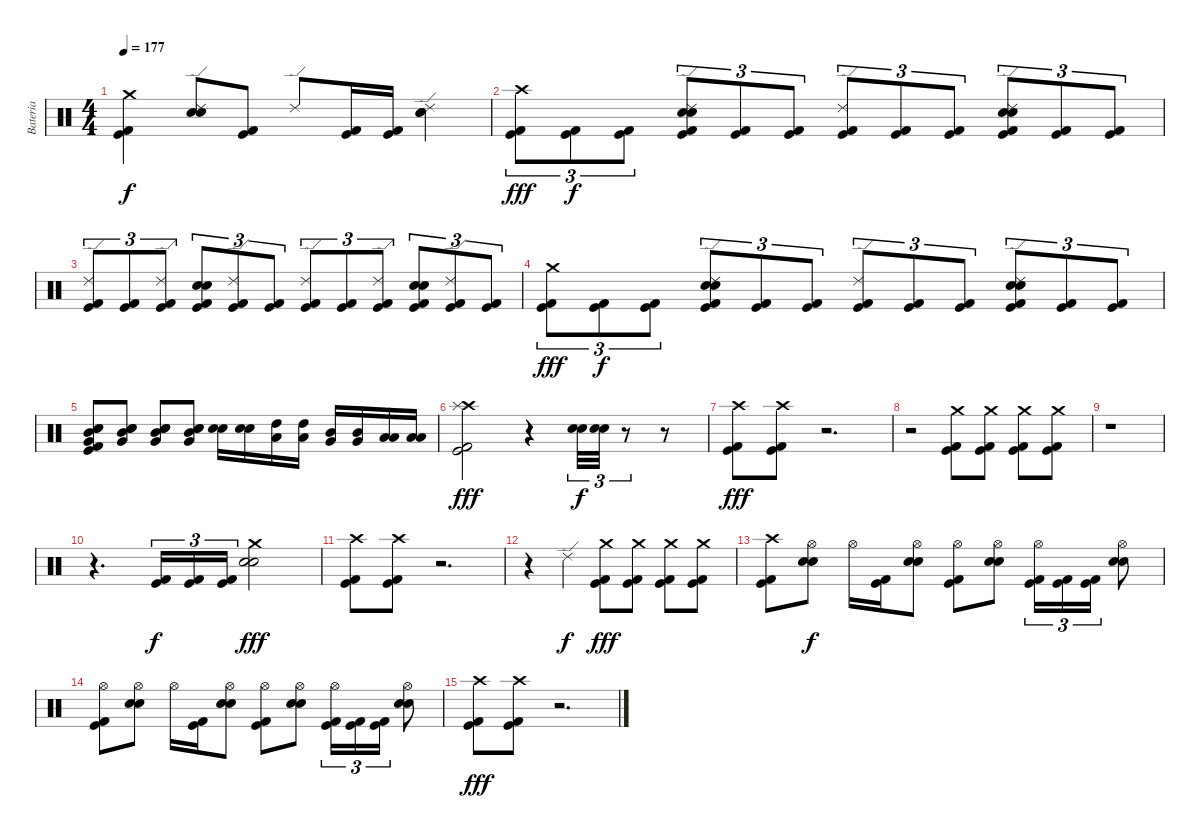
\track ("Bateria" "Bateria") {instrument percussion}
\staff {score}
\articulation defaults
\ts (4 4)
\tempo 177
\clef neutral
\ks c
("Crash medium (hit)" "Kick (hit) 2" "Kick (hit)").4{dy f} ("Ride (edge) 2" "Electric Snare (hit)" "Snare (hit) 2").8 ("Kick (hit) 2" "Kick (hit)").8 "Ride (edge) 2".8 ("Kick (hit) 2" "Kick (hit)").16 ("Kick (hit) 2" "Kick (hit)").16 ("Ride (edge) 2" "Electric Snare (hit)" "Snare (hit) 2").4 |
("Crash high (hit)" "Kick (hit) 2" "Kick (hit)").8{tu (3 2) dy fff} ("Kick (hit) 2" "Kick (hit)").8{tu (3 2) dy f} ("Kick (hit) 2" "Kick (hit)").8{tu (3 2)} ("Ride (edge) 2" "Electric Snare (hit)" "Snare (hit) 2" "Kick (hit) 2" "Kick (hit)").8{tu (3 2)} ("Kick (hit) 2" "Kick (hit)").8{tu (3 2)} ("Kick (hit) 2" "Kick (hit)").8{tu (3 2)} ("Ride (edge) 2" "Kick (hit) 2" "Kick (hit)").8{tu (3 2)} ("Kick (hit) 2" "Kick (hit)").8{tu (3 2)} ("Kick (hit) 2" "Kick (hit)").8{tu (3 2)} ("Ride (edge) 2" "Electric Snare (hit)" "Snare (hit) 2" "Kick (hit) 2" "Kick (hit)").8{tu (3 2)} ("Kick (hit) 2" "Kick (hit)").8{tu (3 2)} ("Kick (hit) 2" "Kick (hit)").8{tu (3 2)} |
("Ride (edge) 2" "Kick (hit) 2" "Kick (hit)").8{tu (3 2)} ("Kick (hit) 2" "Kick (hit)").8{tu (3 2)} ("Ride (edge) 2" "Kick (hit) 2" "Kick (hit)").8{tu (3 2)} ("Electric Snare (hit)" "Snare (hit) 2" "Kick (hit) 2" "Kick (hit)").8{tu (3 2)} ("Ride (edge) 2" "Kick (hit) 2" "Kick (hit)").8{tu (3 2)} ("Kick (hit) 2" "Kick (hit)").8{tu (3 2)} ("Ride (edge) 2" "Kick (hit) 2" "Kick (hit)").8{tu (3 2)} ("Kick (hit) 2" "Kick (hit)").8{tu (3 2)} ("Ride (edge) 2" "Kick (hit) 2" "Kick (hit)").8{tu (3 2)} ("Electric Snare (hit)" "Snare (hit) 2" "Kick (hit) 2" "Kick (hit)").8{tu (3 2)} ("Ride (edge) 2" "Kick (hit) 2" "Kick (hit)").8{tu (3 2)} ("Kick (hit) 2" "Kick (hit)").8{tu (3 2)} |
("Crash medium (hit)" "Kick (hit) 2" "Kick (hit)").8{tu (3 2) dy fff} ("Kick (hit) 2" "Kick (hit)").8{tu (3 2) dy f} ("Kick (hit) 2" "Kick (hit)").8{tu (3 2)} ("Ride (edge) 2" "Electric Snare (hit)" "Snare (hit) 2" "Kick (hit) 2" "Kick (hit)").8{tu (3 2)} ("Kick (hit) 2" "Kick (hit)").8{tu (3 2)} ("Kick (hit) 2" "Kick (hit)").8{tu (3 2)} ("Ride (edge) 2" "Kick (hit) 2" "Kick (hit)").8{tu (3 2)} ("Kick (hit) 2" "Kick (hit)").8{tu (3 2)} ("Kick (hit) 2" "Kick (hit)").8{tu (3 2)} ("Ride (edge) 2" "Electric Snare (hit)" "Snare (hit) 2" "Kick (hit) 2" "Kick (hit)").8{tu (3 2)} ("Kick (hit) 2" "Kick (hit)").8{tu (3 2)} ("Kick (hit) 2" "Kick (hit)").8{tu (3 2)} |
("Electric Snare (hit)" "Snare (hit) 2" "Mid Tom (hit)" "Very Low Tom (hit)" "Kick (hit) 2" "Kick (hit)").8 ("Electric Snare (hit)" "Snare (hit) 2" "Mid Tom (hit)" "Very Low Tom (hit)").8 ("Electric Snare (hit)" "Snare (hit) 2" "Mid Tom (hit)" "Very Low Tom (hit)").8 ("Electric Snare (hit)" "Snare (hit) 2" "Mid Tom (hit)" "Very Low Tom (hit)").8 ("Electric Snare (hit)" "Snare (hit) 2").16 ("Electric Snare (hit)" "Snare (hit) 2").16 ("High Tom (hit)" "Low Tom (hit)").16 ("High Tom (hit)" "Low Tom (hit)").16 ("Mid Tom (hit)" "Very Low Tom (hit)").16 ("Mid Tom (hit)" "Very Low Tom (hit)").16 ("Low Tom (hit)" "Low Floor Tom (hit)").16 ("Low Tom (hit)" "Low Floor Tom (hit)").16 |
("Crash high (hit)" "Splash (hit)" "Kick (hit) 2" "Kick (hit)").2{dy fff} r.4 ("Electric Snare (hit)" "Snare (hit) 2").32{tu (3 2) dy f} ("Electric Snare (hit)" "Snare (hit) 2").32{tu (3 2)} r.8{tu (3 2)} r.8 |
("Crash high (hit)" "Kick (hit) 2" "Kick (hit)").8{dy fff} ("Crash high (hit)" "Kick (hit) 2" "Kick (hit)").8 r.2{d} |
r.2 ("Crash medium (hit)" "Kick (hit) 2" "Kick (hit)").8 ("Crash medium (hit)" "Kick (hit) 2" "Kick (hit)").8 ("Crash medium (hit)" "Kick (hit) 2" "Kick (hit)").8 ("Crash medium (hit)" "Kick (hit) 2" "Kick (hit)").8 |
r.1 |
r.4{d} ("Kick (hit) 2" "Kick (hit)").16{tu (3 2) dy f} ("Kick (hit) 2" "Kick (hit)").16{tu (3 2)} ("Kick (hit) 2" "Kick (hit)").16{tu (3 2)} ("Crash medium (hit)" "Electric Snare (hit)" "Snare (hit) 2").2{dy fff} |
("Crash high (hit)" "Kick (hit) 2" "Kick (hit)").8 ("Crash high (hit)" "Kick (hit) 2" "Kick (hit)").8 r.2{d} |
r.4 "Ride (edge) 2".4{dy f} ("Crash medium (hit)" "Kick (hit) 2" "Kick (hit)").8{dy fff} ("Crash medium (hit)" "Kick (hit) 2" "Kick (hit)").8 ("Crash medium (hit)" "Kick (hit) 2" "Kick (hit)").8 ("Crash medium (hit)" "Kick (hit) 2" "Kick (hit)").8 |
("Crash high (hit)" "Kick (hit) 2" "Kick (hit)").8 ("Hi-Hat (open)" "Electric Snare (hit)" "Snare (hit) 2").8{dy f} "Hi-Hat (open)".16 ("Kick (hit) 2" "Kick (hit)").16 ("Hi-Hat (open)" "Electric Snare (hit)" "Snare (hit) 2").8 ("Hi-Hat (open)" "Kick (hit) 2" "Kick (hit)").8 ("Hi-Hat (open)" "Electric Snare (hit)" "Snare (hit) 2").8 ("Hi-Hat (open)" "Kick (hit) 2" "Kick (hit)").16{tu (3 2)} ("Kick (hit) 2" "Kick (hit)").16{tu (3 2)} ("Kick (hit) 2" "Kick (hit)").16{tu (3 2)} ("Hi-Hat (open)" "Electric Snare (hit)" "Snare (hit) 2").8 |
("Hi-Hat (open)" "Kick (hit) 2" "Kick (hit)").8 ("Hi-Hat (open)" "Electric Snare (hit)" "Snare (hit) 2").8 "Hi-Hat (open)".16 ("Kick (hit) 2" "Kick (hit)").16 ("Hi-Hat (open)" "Electric Snare (hit)" "Snare (hit) 2").8 ("Hi-Hat (open)" "Kick (hit) 2" "Kick (hit)").8 ("Hi-Hat (open)" "Electric Snare (hit)" "Snare (hit) 2").8 ("Hi-Hat (open)" "Kick (hit) 2" "Kick (hit)").16{tu (3 2)} ("Kick (hit) 2" "Kick (hit)").16{tu (3 2)} ("Kick (hit) 2" "Kick (hit)").16{tu (3 2)} ("Hi-Hat (open)" "Electric Snare (hit)" "Snare (hit) 2").8 |
("Crash high (hit)" "Kick (hit) 2" "Kick (hit)").8{dy fff} ("Crash high (hit)" "Kick (hit) 2" "Kick (hit)").8 r.2{d}
